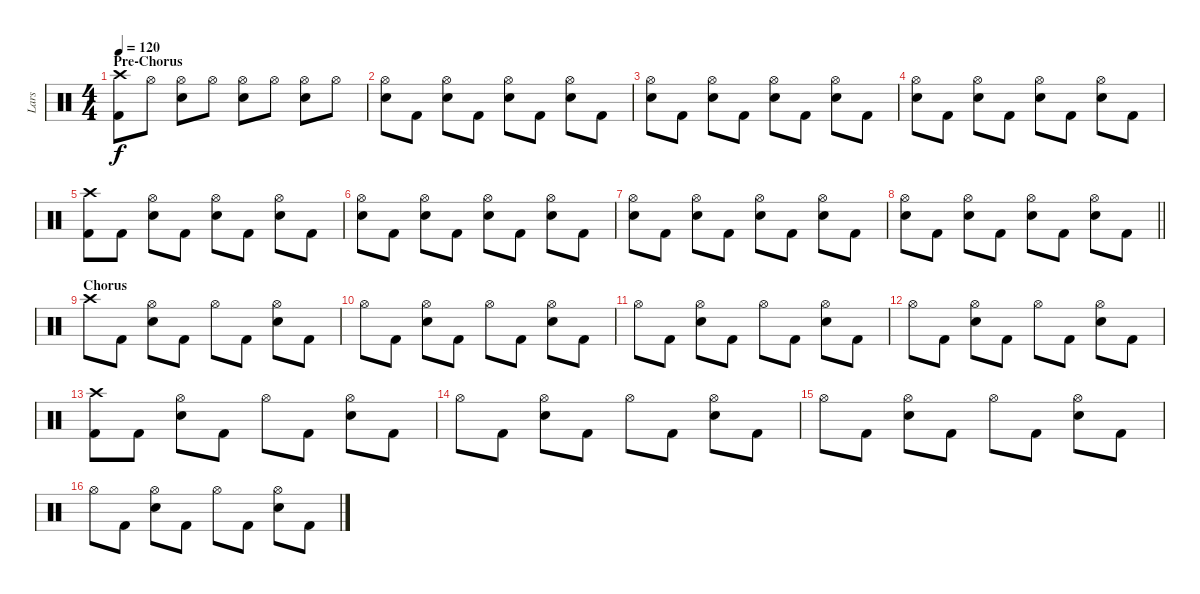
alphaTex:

\track ("Lars" "Lars") {instrument percussion}
\staff {score}
\articulation defaults
\ts (4 4)
\section ("" "Pre-Chorus")
\tempo 120
\clef neutral
\ks c
("Kick (hit) 2" "Crash high (hit)").8{dy f} "Hi-Hat (open)".8 ("Hi-Hat (open)" "Snare (hit) 2").8 "Hi-Hat (open)".8 ("Hi-Hat (open)" "Snare (hit) 2").8 "Hi-Hat (open)".8 ("Hi-Hat (open)" "Snare (hit) 2").8 "Hi-Hat (open)".8 |
("Snare (hit) 2" "Hi-Hat (open)").8 "Kick (hit) 2".8 ("Snare (hit) 2" "Hi-Hat (open)").8 "Kick (hit) 2".8 ("Snare (hit) 2" "Hi-Hat (open)").8 "Kick (hit) 2".8 ("Snare (hit) 2" "Hi-Hat (open)").8 "Kick (hit) 2".8 |
("Snare (hit) 2" "Hi-Hat (open)").8 "Kick (hit) 2".8 ("Snare (hit) 2" "Hi-Hat (open)").8 "Kick (hit) 2".8 ("Snare (hit) 2" "Hi-Hat (open)").8 "Kick (hit) 2".8 ("Snare (hit) 2" "Hi-Hat (open)").8 "Kick (hit) 2".8 |
("Snare (hit) 2" "Hi-Hat (open)").8 "Kick (hit) 2".8 ("Snare (hit) 2" "Hi-Hat (open)").8 "Kick (hit) 2".8 ("Snare (hit) 2" "Hi-Hat (open)").8 "Kick (hit) 2".8 ("Snare (hit) 2" "Hi-Hat (open)").8 "Kick (hit) 2".8 |
("Kick (hit) 2" "Crash high (hit)").8 "Kick (hit) 2".8 ("Snare (hit) 2" "Hi-Hat (open)").8 "Kick (hit) 2".8 ("Snare (hit) 2" "Hi-Hat (open)").8 "Kick (hit) 2".8 ("Snare (hit) 2" "Hi-Hat (open)").8 "Kick (hit) 2".8 |
("Snare (hit) 2" "Hi-Hat (open)").8 "Kick (hit) 2".8 ("Snare (hit) 2" "Hi-Hat (open)").8 "Kick (hit) 2".8 ("Snare (hit) 2" "Hi-Hat (open)").8 "Kick (hit) 2".8 ("Snare (hit) 2" "Hi-Hat (open)").8 "Kick (hit) 2".8 |
("Snare (hit) 2" "Hi-Hat (open)").8 "Kick (hit) 2".8 ("Snare (hit) 2" "Hi-Hat (open)").8 "Kick (hit) 2".8 ("Snare (hit) 2" "Hi-Hat (open)").8 "Kick (hit) 2".8 ("Snare (hit) 2" "Hi-Hat (open)").8 "Kick (hit) 2".8 |
\barLineRight lightlight
("Snare (hit) 2" "Hi-Hat (open)").8 "Kick (hit) 2".8 ("Snare (hit) 2" "Hi-Hat (open)").8 "Kick (hit) 2".8 ("Snare (hit) 2" "Hi-Hat (open)").8 "Kick (hit) 2".8 ("Snare (hit) 2" "Hi-Hat (open)").8 "Kick (hit) 2".8 |
\section ("" "Chorus")
"Crash high (hit)".8 "Kick (hit) 2".8 ("Snare (hit) 2" "Hi-Hat (open)").8 "Kick (hit) 2".8 "Hi-Hat (open)".8 "Kick (hit) 2".8 ("Snare (hit) 2" "Hi-Hat (open)").8 "Kick (hit) 2".8 |
"Hi-Hat (open)".8 "Kick (hit) 2".8 ("Snare (hit) 2" "Hi-Hat (open)").8 "Kick (hit) 2".8 "Hi-Hat (open)".8 "Kick (hit) 2".8 ("Snare (hit) 2" "Hi-Hat (open)").8 "Kick (hit) 2".8 |
"Hi-Hat (open)".8 "Kick (hit) 2".8 ("Snare (hit) 2" "Hi-Hat (open)").8 "Kick (hit) 2".8 "Hi-Hat (open)".8 "Kick (hit) 2".8 ("Snare (hit) 2" "Hi-Hat (open)").8 "Kick (hit) 2".8 |
"Hi-Hat (open)".8 "Kick (hit) 2".8 ("Snare (hit) 2" "Hi-Hat (open)").8 "Kick (hit) 2".8 "Hi-Hat (open)".8 "Kick (hit) 2".8 ("Snare (hit) 2" "Hi-Hat (open)").8 "Kick (hit) 2".8 |
("Kick (hit) 2" "Crash high (hit)").8 "Kick (hit) 2".8 ("Snare (hit) 2" "Hi-Hat (open)").8 "Kick (hit) 2".8 "Hi-Hat (open)".8 "Kick (hit) 2".8 ("Snare (hit) 2" "Hi-Hat (open)").8 "Kick (hit) 2".8 |
"Hi-Hat (open)".8 "Kick (hit) 2".8 ("Snare (hit) 2" "Hi-Hat (open)").8 "Kick (hit) 2".8 "Hi-Hat (open)".8 "Kick (hit) 2".8 ("Snare (hit) 2" "Hi-Hat (open)").8 "Kick (hit) 2".8 |
"Hi-Hat (open)".8 "Kick (hit) 2".8 ("Snare (hit) 2" "Hi-Hat (open)").8 "Kick (hit) 2".8 "Hi-Hat (open)".8 "Kick (hit) 2".8 ("Snare (hit) 2" "Hi-Hat (open)").8 "Kick (hit) 2".8 |
"Hi-Hat (open)".8 "Kick (hit) 2".8 ("Snare (hit) 2" "Hi-Hat (open)").8 "Kick (hit) 2".8 "Hi-Hat (open)".8 "Kick (hit) 2".8 ("Snare (hit) 2" "Hi-Hat (open)").8 "Kick (hit) 2".8
